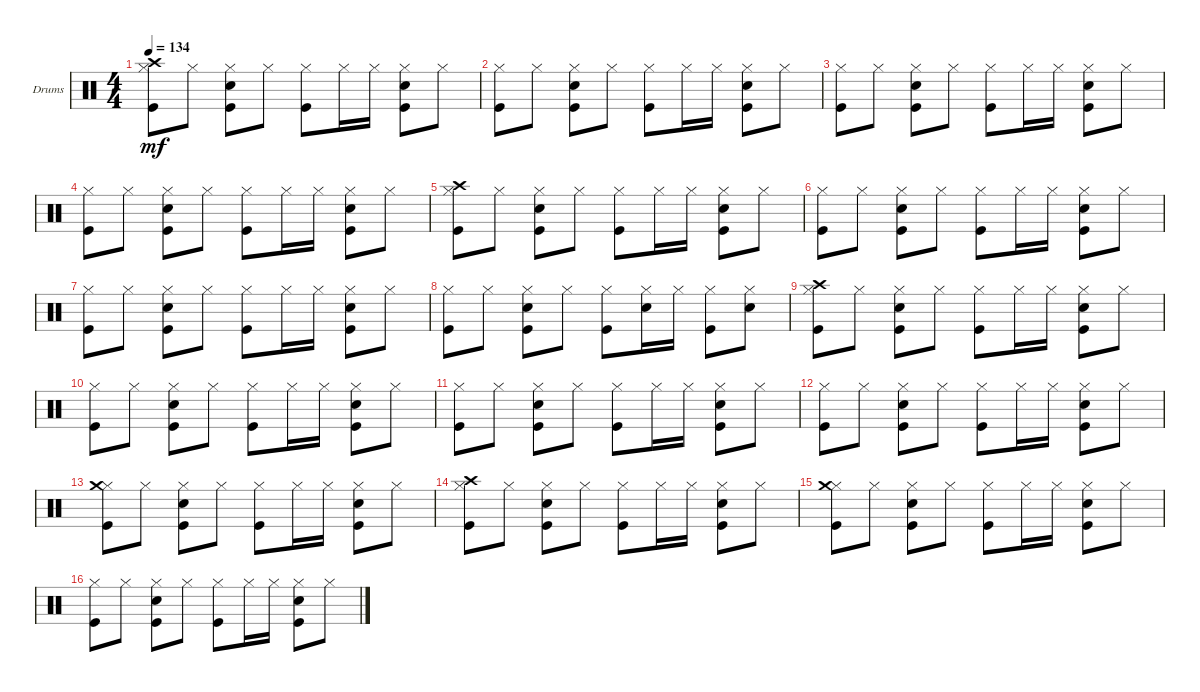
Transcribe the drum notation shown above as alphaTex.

\bracketExtendMode groupsimilarinstruments
\firstSystemTrackNameOrientation horizontal
\otherSystemsTrackNameOrientation horizontal
\track ("DRUMSET" "Drums") {instrument percussion}
\staff {score}
\articulation defaults
\ts (4 4)
\tempo 134
\clef neutral
\ks c
("Kick (hit)" "Hi-Hat (closed)" "Crash high (hit)").8{dy mf} "Hi-Hat (closed)".8 ("Kick (hit)" "Snare (hit) 2" "Hi-Hat (closed)").8 "Hi-Hat (closed)".8 ("Kick (hit)" "Hi-Hat (closed)").8 "Hi-Hat (closed)".16 "Hi-Hat (closed)".16 ("Kick (hit)" "Snare (hit) 2" "Hi-Hat (closed)").8 "Hi-Hat (closed)".8 |
("Kick (hit)" "Hi-Hat (closed)").8 "Hi-Hat (closed)".8 ("Kick (hit)" "Snare (hit) 2" "Hi-Hat (closed)").8 "Hi-Hat (closed)".8 ("Kick (hit)" "Hi-Hat (closed)").8 "Hi-Hat (closed)".16 "Hi-Hat (closed)".16 ("Kick (hit)" "Snare (hit) 2" "Hi-Hat (closed)").8 "Hi-Hat (closed)".8 |
("Kick (hit)" "Hi-Hat (closed)").8 "Hi-Hat (closed)".8 ("Kick (hit)" "Snare (hit) 2" "Hi-Hat (closed)").8 "Hi-Hat (closed)".8 ("Kick (hit)" "Hi-Hat (closed)").8 "Hi-Hat (closed)".16 "Hi-Hat (closed)".16 ("Kick (hit)" "Snare (hit) 2" "Hi-Hat (closed)").8 "Hi-Hat (closed)".8 |
("Kick (hit)" "Hi-Hat (closed)").8 "Hi-Hat (closed)".8 ("Kick (hit)" "Snare (hit) 2" "Hi-Hat (closed)").8 "Hi-Hat (closed)".8 ("Kick (hit)" "Hi-Hat (closed)").8 "Hi-Hat (closed)".16 "Hi-Hat (closed)".16 ("Kick (hit)" "Snare (hit) 2" "Hi-Hat (closed)").8 "Hi-Hat (closed)".8 |
("Kick (hit)" "Hi-Hat (closed)" "Crash high (hit)").8 "Hi-Hat (closed)".8 ("Kick (hit)" "Snare (hit) 2" "Hi-Hat (closed)").8 "Hi-Hat (closed)".8 ("Kick (hit)" "Hi-Hat (closed)").8 "Hi-Hat (closed)".16 "Hi-Hat (closed)".16 ("Kick (hit)" "Snare (hit) 2" "Hi-Hat (closed)").8 "Hi-Hat (closed)".8 |
("Kick (hit)" "Hi-Hat (closed)").8 "Hi-Hat (closed)".8 ("Kick (hit)" "Snare (hit) 2" "Hi-Hat (closed)").8 "Hi-Hat (closed)".8 ("Kick (hit)" "Hi-Hat (closed)").8 "Hi-Hat (closed)".16 "Hi-Hat (closed)".16 ("Kick (hit)" "Snare (hit) 2" "Hi-Hat (closed)").8 "Hi-Hat (closed)".8 |
("Kick (hit)" "Hi-Hat (closed)").8 "Hi-Hat (closed)".8 ("Kick (hit)" "Snare (hit) 2" "Hi-Hat (closed)").8 "Hi-Hat (closed)".8 ("Kick (hit)" "Hi-Hat (closed)").8 "Hi-Hat (closed)".16 "Hi-Hat (closed)".16 ("Kick (hit)" "Snare (hit) 2" "Hi-Hat (closed)").8 "Hi-Hat (closed)".8 |
("Kick (hit)" "Hi-Hat (closed)").8 "Hi-Hat (closed)".8 ("Kick (hit)" "Snare (hit) 2" "Hi-Hat (closed)").8 "Hi-Hat (closed)".8 ("Kick (hit)" "Hi-Hat (closed)").8 ("Snare (hit) 2" "Hi-Hat (closed)").16 "Hi-Hat (closed)".16 ("Kick (hit)" "Hi-Hat (closed)").8 ("Snare (hit) 2" "Hi-Hat (closed)").8 |
("Kick (hit)" "Hi-Hat (closed)" "Crash high (hit)").8 "Hi-Hat (closed)".8 ("Kick (hit)" "Snare (hit) 2" "Hi-Hat (closed)").8 "Hi-Hat (closed)".8 ("Kick (hit)" "Hi-Hat (closed)").8 "Hi-Hat (closed)".16 "Hi-Hat (closed)".16 ("Kick (hit)" "Snare (hit) 2" "Hi-Hat (closed)").8 "Hi-Hat (closed)".8 |
("Kick (hit)" "Hi-Hat (closed)").8 "Hi-Hat (closed)".8 ("Kick (hit)" "Snare (hit) 2" "Hi-Hat (closed)").8 "Hi-Hat (closed)".8 ("Kick (hit)" "Hi-Hat (closed)").8 "Hi-Hat (closed)".16 "Hi-Hat (closed)".16 ("Kick (hit)" "Snare (hit) 2" "Hi-Hat (closed)").8 "Hi-Hat (closed)".8 |
("Kick (hit)" "Hi-Hat (closed)").8 "Hi-Hat (closed)".8 ("Kick (hit)" "Snare (hit) 2" "Hi-Hat (closed)").8 "Hi-Hat (closed)".8 ("Kick (hit)" "Hi-Hat (closed)").8 "Hi-Hat (closed)".16 "Hi-Hat (closed)".16 ("Kick (hit)" "Snare (hit) 2" "Hi-Hat (closed)").8 "Hi-Hat (closed)".8 |
("Kick (hit)" "Hi-Hat (closed)").8 "Hi-Hat (closed)".8 ("Kick (hit)" "Snare (hit) 2" "Hi-Hat (closed)").8 "Hi-Hat (closed)".8 ("Kick (hit)" "Hi-Hat (closed)").8 "Hi-Hat (closed)".16 "Hi-Hat (closed)".16 ("Kick (hit)" "Snare (hit) 2" "Hi-Hat (closed)").8 "Hi-Hat (closed)".8 |
("Kick (hit)" "Hi-Hat (closed)" "Crash medium (hit)").8 "Hi-Hat (closed)".8 ("Kick (hit)" "Snare (hit) 2" "Hi-Hat (closed)").8 "Hi-Hat (closed)".8 ("Kick (hit)" "Hi-Hat (closed)").8 "Hi-Hat (closed)".16 "Hi-Hat (closed)".16 ("Kick (hit)" "Snare (hit) 2" "Hi-Hat (closed)").8 "Hi-Hat (closed)".8 |
("Kick (hit)" "Hi-Hat (closed)" "Crash high (hit)").8 "Hi-Hat (closed)".8 ("Kick (hit)" "Snare (hit) 2" "Hi-Hat (closed)").8 "Hi-Hat (closed)".8 ("Kick (hit)" "Hi-Hat (closed)").8 "Hi-Hat (closed)".16 "Hi-Hat (closed)".16 ("Kick (hit)" "Snare (hit) 2" "Hi-Hat (closed)").8 "Hi-Hat (closed)".8 |
("Kick (hit)" "Hi-Hat (closed)" "Crash medium (hit)").8 "Hi-Hat (closed)".8 ("Kick (hit)" "Snare (hit) 2" "Hi-Hat (closed)").8 "Hi-Hat (closed)".8 ("Kick (hit)" "Hi-Hat (closed)").8 "Hi-Hat (closed)".16 "Hi-Hat (closed)".16 ("Kick (hit)" "Snare (hit) 2" "Hi-Hat (closed)").8 "Hi-Hat (closed)".8 |
("Kick (hit)" "Hi-Hat (closed)").8 "Hi-Hat (closed)".8 ("Kick (hit)" "Snare (hit) 2" "Hi-Hat (closed)").8 "Hi-Hat (closed)".8 ("Kick (hit)" "Hi-Hat (closed)").8 "Hi-Hat (closed)".16 "Hi-Hat (closed)".16 ("Kick (hit)" "Snare (hit) 2" "Hi-Hat (closed)").8 "Hi-Hat (closed)".8
